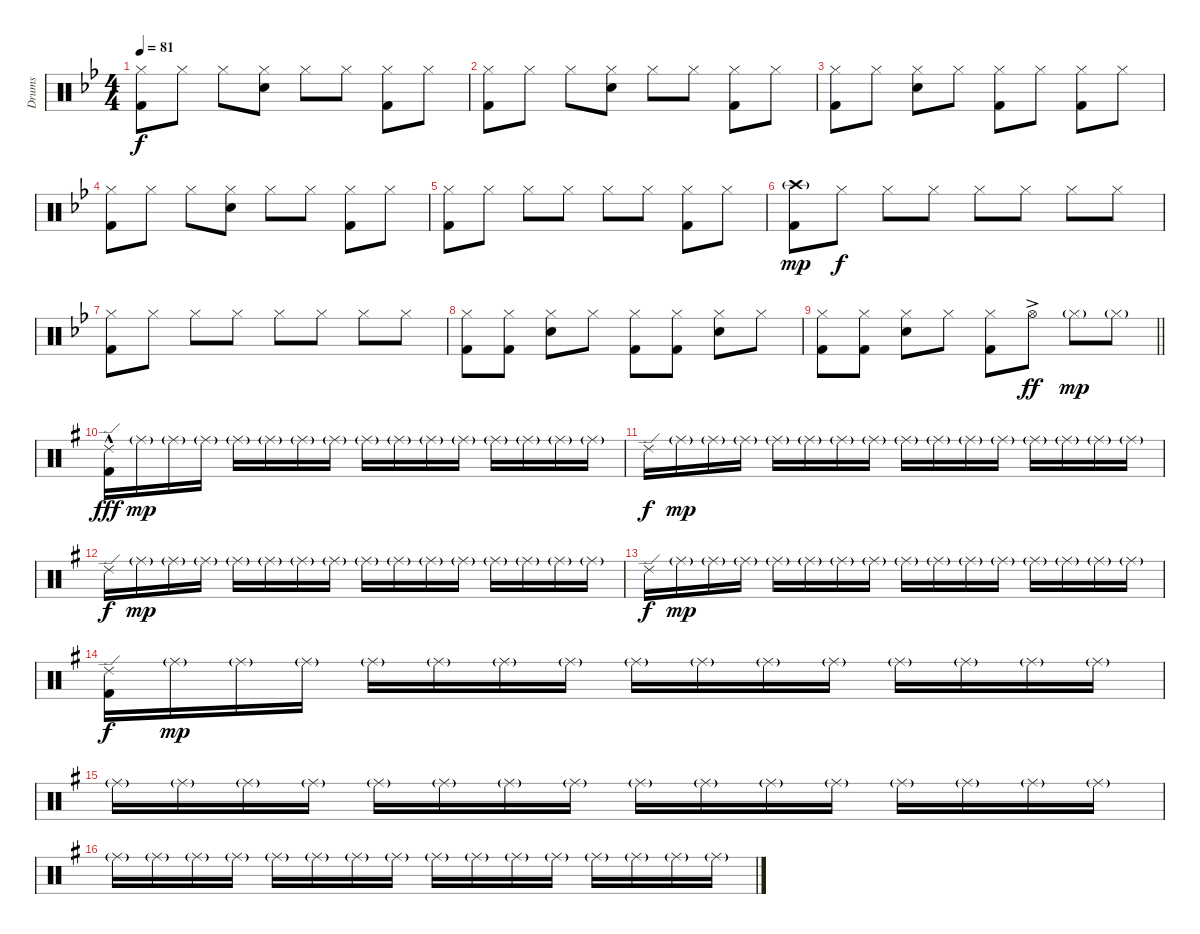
\track ("Drums" "Drums") {instrument percussion}
\staff {score}
\articulation defaults
\ts (4 4)
\tempo 81
\clef neutral
\ks gminor
("Hi-Hat (closed)" "Kick (hit) 2").8{dy f} "Hi-Hat (closed)".8 "Hi-Hat (closed)".8 ("Hi-Hat (closed)" "Electric Snare (hit)").8 "Hi-Hat (closed)".8 "Hi-Hat (closed)".8 ("Hi-Hat (closed)" "Kick (hit) 2").8 "Hi-Hat (closed)".8 |
("Hi-Hat (closed)" "Kick (hit) 2").8 "Hi-Hat (closed)".8 "Hi-Hat (closed)".8 ("Hi-Hat (closed)" "Electric Snare (hit)").8 "Hi-Hat (closed)".8 "Hi-Hat (closed)".8 ("Hi-Hat (closed)" "Kick (hit) 2").8 "Hi-Hat (closed)".8 |
("Hi-Hat (closed)" "Kick (hit) 2").8 "Hi-Hat (closed)".8 ("Hi-Hat (closed)" "Electric Snare (hit)").8 "Hi-Hat (closed)".8 ("Hi-Hat (closed)" "Kick (hit) 2").8 "Hi-Hat (closed)".8 ("Hi-Hat (closed)" "Kick (hit) 2").8 "Hi-Hat (closed)".8 |
("Hi-Hat (closed)" "Kick (hit) 2").8 "Hi-Hat (closed)".8 "Hi-Hat (closed)".8 ("Hi-Hat (closed)" "Electric Snare (hit)").8 "Hi-Hat (closed)".8 "Hi-Hat (closed)".8 ("Hi-Hat (closed)" "Kick (hit) 2").8 "Hi-Hat (closed)".8 |
("Hi-Hat (closed)" "Kick (hit) 2").8 "Hi-Hat (closed)".8 "Hi-Hat (closed)".8 "Hi-Hat (closed)".8 "Hi-Hat (closed)".8 "Hi-Hat (closed)".8 ("Hi-Hat (closed)" "Kick (hit) 2").8 "Hi-Hat (closed)".8 |
("Crash high (hit)"{g} "Kick (hit) 2").8{dy mp} "Hi-Hat (closed)".8{dy f} "Hi-Hat (closed)".8 "Hi-Hat (closed)".8 "Hi-Hat (closed)".8 "Hi-Hat (closed)".8 "Hi-Hat (closed)".8 "Hi-Hat (closed)".8 |
("Hi-Hat (closed)" "Kick (hit) 2").8 "Hi-Hat (closed)".8 "Hi-Hat (closed)".8 "Hi-Hat (closed)".8 "Hi-Hat (closed)".8 "Hi-Hat (closed)".8 "Hi-Hat (closed)".8 "Hi-Hat (closed)".8 |
("Hi-Hat (closed)" "Kick (hit) 2").8 ("Hi-Hat (closed)" "Kick (hit) 2").8 ("Hi-Hat (closed)" "Electric Snare (hit)").8 "Hi-Hat (closed)".8 ("Hi-Hat (closed)" "Kick (hit) 2").8 ("Hi-Hat (closed)" "Kick (hit) 2").8 ("Hi-Hat (closed)" "Electric Snare (hit)").8 "Hi-Hat (closed)".8 |
\barLineRight lightlight
("Hi-Hat (closed)" "Kick (hit) 2").8 ("Hi-Hat (closed)" "Kick (hit) 2").8 ("Hi-Hat (closed)" "Electric Snare (hit)").8 "Hi-Hat (closed)".8 ("Hi-Hat (closed)" "Kick (hit) 2").8 "Hi-Hat (open)"{ac}.8{dy ff} "Hi-Hat (closed)"{g}.8{dy mp} "Hi-Hat (closed)"{g}.8 |
\ks g
("Ride (edge) 2"{hac} "Kick (hit) 2").16{dy fff} "Ride (middle)"{g}.16{dy mp} "Ride (middle)"{g}.16 "Ride (middle)"{g}.16 "Ride (middle)"{g}.16 "Ride (middle)"{g}.16 "Ride (middle)"{g}.16 "Ride (middle)"{g}.16 "Ride (middle)"{g}.16 "Ride (middle)"{g}.16 "Ride (middle)"{g}.16 "Ride (middle)"{g}.16 "Ride (middle)"{g}.16 "Ride (middle)"{g}.16 "Ride (middle)"{g}.16 "Ride (middle)"{g}.16 |
"Ride (edge) 2".16{dy f} "Ride (middle)"{g}.16{dy mp} "Ride (middle)"{g}.16 "Ride (middle)"{g}.16 "Ride (middle)"{g}.16 "Ride (middle)"{g}.16 "Ride (middle)"{g}.16 "Ride (middle)"{g}.16 "Ride (middle)"{g}.16 "Ride (middle)"{g}.16 "Ride (middle)"{g}.16 "Ride (middle)"{g}.16 "Ride (middle)"{g}.16 "Ride (middle)"{g}.16 "Ride (middle)"{g}.16 "Ride (middle)"{g}.16 |
"Ride (edge) 2".16{dy f} "Ride (middle)"{g}.16{dy mp} "Ride (middle)"{g}.16 "Ride (middle)"{g}.16 "Ride (middle)"{g}.16 "Ride (middle)"{g}.16 "Ride (middle)"{g}.16 "Ride (middle)"{g}.16 "Ride (middle)"{g}.16 "Ride (middle)"{g}.16 "Ride (middle)"{g}.16 "Ride (middle)"{g}.16 "Ride (middle)"{g}.16 "Ride (middle)"{g}.16 "Ride (middle)"{g}.16 "Ride (middle)"{g}.16 |
"Ride (edge) 2".16{dy f} "Ride (middle)"{g}.16{dy mp} "Ride (middle)"{g}.16 "Ride (middle)"{g}.16 "Ride (middle)"{g}.16 "Ride (middle)"{g}.16 "Ride (middle)"{g}.16 "Ride (middle)"{g}.16 "Ride (middle)"{g}.16 "Ride (middle)"{g}.16 "Ride (middle)"{g}.16 "Ride (middle)"{g}.16 "Ride (middle)"{g}.16 "Ride (middle)"{g}.16 "Ride (middle)"{g}.16 "Ride (middle)"{g}.16 |
("Ride (edge) 2" "Kick (hit) 2").16{dy f} "Ride (middle)"{g}.16{dy mp} "Ride (middle)"{g}.16 "Ride (middle)"{g}.16 "Ride (middle)"{g}.16 "Ride (middle)"{g}.16 "Ride (middle)"{g}.16 "Ride (middle)"{g}.16 "Ride (middle)"{g}.16 "Ride (middle)"{g}.16 "Ride (middle)"{g}.16 "Ride (middle)"{g}.16 "Ride (middle)"{g}.16 "Ride (middle)"{g}.16 "Ride (middle)"{g}.16 "Ride (middle)"{g}.16 |
"Ride (middle)"{g}.16 "Ride (middle)"{g}.16 "Ride (middle)"{g}.16 "Ride (middle)"{g}.16 "Ride (middle)"{g}.16 "Ride (middle)"{g}.16 "Ride (middle)"{g}.16 "Ride (middle)"{g}.16 "Ride (middle)"{g}.16 "Ride (middle)"{g}.16 "Ride (middle)"{g}.16 "Ride (middle)"{g}.16 "Ride (middle)"{g}.16 "Ride (middle)"{g}.16 "Ride (middle)"{g}.16 "Ride (middle)"{g}.16 |
"Ride (middle)"{g}.16 "Ride (middle)"{g}.16 "Ride (middle)"{g}.16 "Ride (middle)"{g}.16 "Ride (middle)"{g}.16 "Ride (middle)"{g}.16 "Ride (middle)"{g}.16 "Ride (middle)"{g}.16 "Ride (middle)"{g}.16 "Ride (middle)"{g}.16 "Ride (middle)"{g}.16 "Ride (middle)"{g}.16 "Ride (middle)"{g}.16 "Ride (middle)"{g}.16 "Ride (middle)"{g}.16 "Ride (middle)"{g}.16
